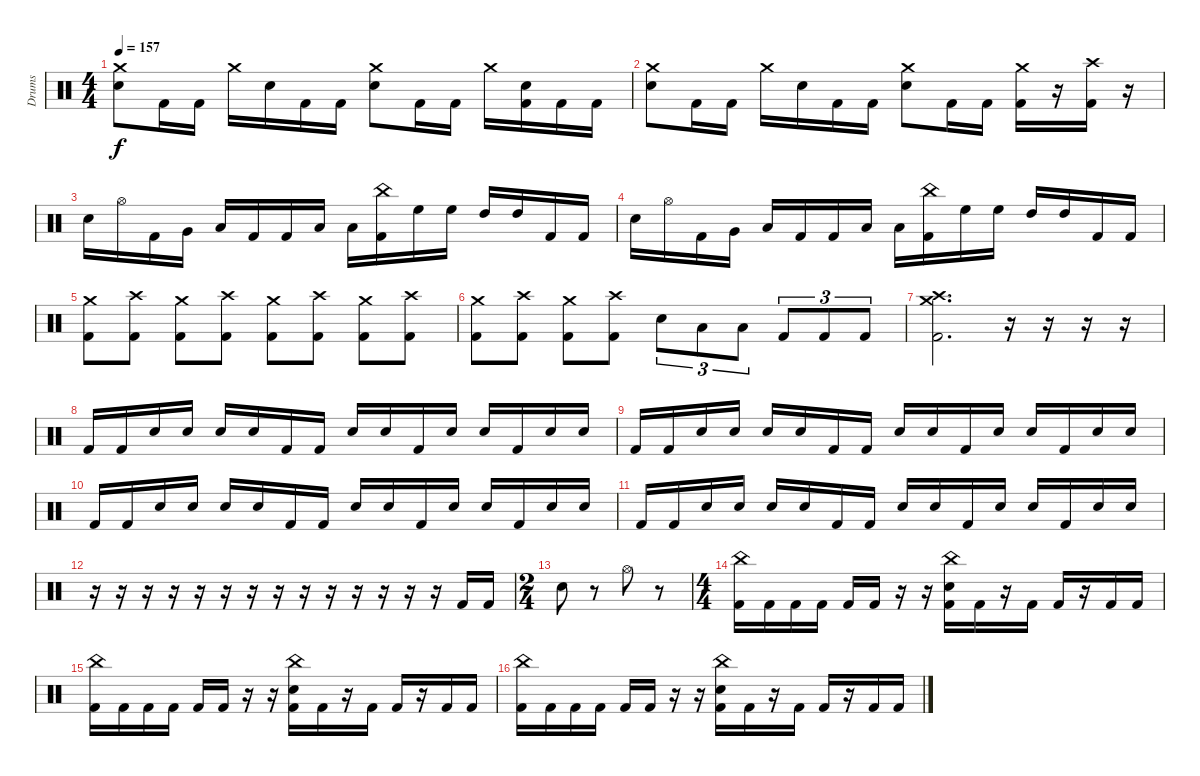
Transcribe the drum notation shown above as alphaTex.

\track ("Drums" "Drums") {instrument percussion}
\staff {score}
\articulation defaults
\ts (4 4)
\tempo 157
\clef neutral
\ks c
("Crash medium (hit)" "Electric Snare (hit)").8{dy f} "Kick (hit) 2".16 "Kick (hit) 2".16 "Crash medium (hit)".16 "Electric Snare (hit)".16 "Kick (hit) 2".16 "Kick (hit) 2".16 ("Crash medium (hit)" "Electric Snare (hit)").8 "Kick (hit) 2".16 "Kick (hit) 2".16 "Crash medium (hit)".16 ("Electric Snare (hit)" "Kick (hit) 2").16 "Kick (hit) 2".16 "Kick (hit) 2".16 |
("Crash medium (hit)" "Electric Snare (hit)").8 "Kick (hit) 2".16 "Kick (hit) 2".16 "Crash medium (hit)".16 "Electric Snare (hit)".16 "Kick (hit) 2".16 "Kick (hit) 2".16 ("Crash medium (hit)" "Electric Snare (hit)").8 "Kick (hit) 2".16 "Kick (hit) 2".16 ("Crash medium (hit)" "Kick (hit) 2").16 r.16 ("Crash high (hit)" "Kick (hit) 2").16 r.16 |
"Electric Snare (hit)".16 "Hi-Hat (open)".16 "Kick (hit) 2".16 "Very Low Tom (hit)".16 "Low Floor Tom (hit)".16 "Kick (hit) 2".16 "Kick (hit) 2".16 "Low Floor Tom (hit)".16 "Low Floor Tom (hit)".16 ("China (hit)" "Kick (hit) 2").16 "High Floor Tom (hit)".16 "High Floor Tom (hit)".16 "High Tom (hit)".16 "High Tom (hit)".16 "Kick (hit) 2".16 "Kick (hit) 2".16 |
"Electric Snare (hit)".16 "Hi-Hat (open)".16 "Kick (hit) 2".16 "Very Low Tom (hit)".16 "Low Floor Tom (hit)".16 "Kick (hit) 2".16 "Kick (hit) 2".16 "Low Floor Tom (hit)".16 "Low Floor Tom (hit)".16 ("China (hit)" "Kick (hit) 2").16 "High Floor Tom (hit)".16 "High Floor Tom (hit)".16 "High Tom (hit)".16 "High Tom (hit)".16 "Kick (hit) 2".16 "Kick (hit) 2".16 |
("Crash medium (hit)" "Kick (hit) 2").8 ("Crash high (hit)" "Kick (hit) 2").8 ("Crash medium (hit)" "Kick (hit) 2").8 ("Crash high (hit)" "Kick (hit) 2").8 ("Crash medium (hit)" "Kick (hit) 2").8 ("Crash high (hit)" "Kick (hit) 2").8 ("Crash medium (hit)" "Kick (hit) 2").8 ("Crash high (hit)" "Kick (hit) 2").8 |
("Crash medium (hit)" "Kick (hit) 2").8 ("Crash high (hit)" "Kick (hit) 2").8 ("Crash medium (hit)" "Kick (hit) 2").8 ("Crash high (hit)" "Kick (hit) 2").8 "Electric Snare (hit)".8{tu (3 2)} "Low Tom (hit)".8{tu (3 2)} "Low Floor Tom (hit)".8{tu (3 2)} "Kick (hit) 2".8{tu (3 2)} "Kick (hit) 2".8{tu (3 2)} "Kick (hit) 2".8{tu (3 2)} |
("Crash medium (hit)" "Crash high (hit)" "Kick (hit) 2").2{d} r.16 r.16 r.16 r.16 |
"Kick (hit) 2".16 "Kick (hit) 2".16 "Electric Snare (hit)".16 "Electric Snare (hit)".16 "Electric Snare (hit)".16 "Electric Snare (hit)".16 "Kick (hit) 2".16 "Kick (hit) 2".16 "Electric Snare (hit)".16 "Electric Snare (hit)".16 "Kick (hit) 2".16 "Electric Snare (hit)".16 "Electric Snare (hit)".16 "Kick (hit) 2".16 "Electric Snare (hit)".16 "Electric Snare (hit)".16 |
"Kick (hit) 2".16 "Kick (hit) 2".16 "Electric Snare (hit)".16 "Electric Snare (hit)".16 "Electric Snare (hit)".16 "Electric Snare (hit)".16 "Kick (hit) 2".16 "Kick (hit) 2".16 "Electric Snare (hit)".16 "Electric Snare (hit)".16 "Kick (hit) 2".16 "Electric Snare (hit)".16 "Electric Snare (hit)".16 "Kick (hit) 2".16 "Electric Snare (hit)".16 "Electric Snare (hit)".16 |
"Kick (hit) 2".16 "Kick (hit) 2".16 "Electric Snare (hit)".16 "Electric Snare (hit)".16 "Electric Snare (hit)".16 "Electric Snare (hit)".16 "Kick (hit) 2".16 "Kick (hit) 2".16 "Electric Snare (hit)".16 "Electric Snare (hit)".16 "Kick (hit) 2".16 "Electric Snare (hit)".16 "Electric Snare (hit)".16 "Kick (hit) 2".16 "Electric Snare (hit)".16 "Electric Snare (hit)".16 |
"Kick (hit) 2".16 "Kick (hit) 2".16 "Electric Snare (hit)".16 "Electric Snare (hit)".16 "Electric Snare (hit)".16 "Electric Snare (hit)".16 "Kick (hit) 2".16 "Kick (hit) 2".16 "Electric Snare (hit)".16 "Electric Snare (hit)".16 "Kick (hit) 2".16 "Electric Snare (hit)".16 "Electric Snare (hit)".16 "Kick (hit) 2".16 "Electric Snare (hit)".16 "Electric Snare (hit)".16 |
r.16 r.16 r.16 r.16 r.16 r.16 r.16 r.16 r.16 r.16 r.16 r.16 r.16 r.16 "Kick (hit) 2".16 "Kick (hit) 2".16 |
\ts (2 4)
"Electric Snare (hit)".8 r.8 "Hi-Hat (open)".8 r.8 |
\ts (4 4)
("China (hit)" "Kick (hit) 2").16 "Kick (hit) 2".16 "Kick (hit) 2".16 "Kick (hit) 2".16 "Kick (hit) 2".16 "Kick (hit) 2".16 r.16 r.16 ("China (hit)" "Electric Snare (hit)" "Kick (hit) 2").16 "Kick (hit) 2".16 r.16 "Kick (hit) 2".16 "Kick (hit) 2".16 r.16 "Kick (hit) 2".16 "Kick (hit) 2".16 |
("China (hit)" "Kick (hit) 2").16 "Kick (hit) 2".16 "Kick (hit) 2".16 "Kick (hit) 2".16 "Kick (hit) 2".16 "Kick (hit) 2".16 r.16 r.16 ("China (hit)" "Electric Snare (hit)" "Kick (hit) 2").16 "Kick (hit) 2".16 r.16 "Kick (hit) 2".16 "Kick (hit) 2".16 r.16 "Kick (hit) 2".16 "Kick (hit) 2".16 |
("China (hit)" "Kick (hit) 2").16 "Kick (hit) 2".16 "Kick (hit) 2".16 "Kick (hit) 2".16 "Kick (hit) 2".16 "Kick (hit) 2".16 r.16 r.16 ("China (hit)" "Electric Snare (hit)" "Kick (hit) 2").16 "Kick (hit) 2".16 r.16 "Kick (hit) 2".16 "Kick (hit) 2".16 r.16 "Kick (hit) 2".16 "Kick (hit) 2".16
